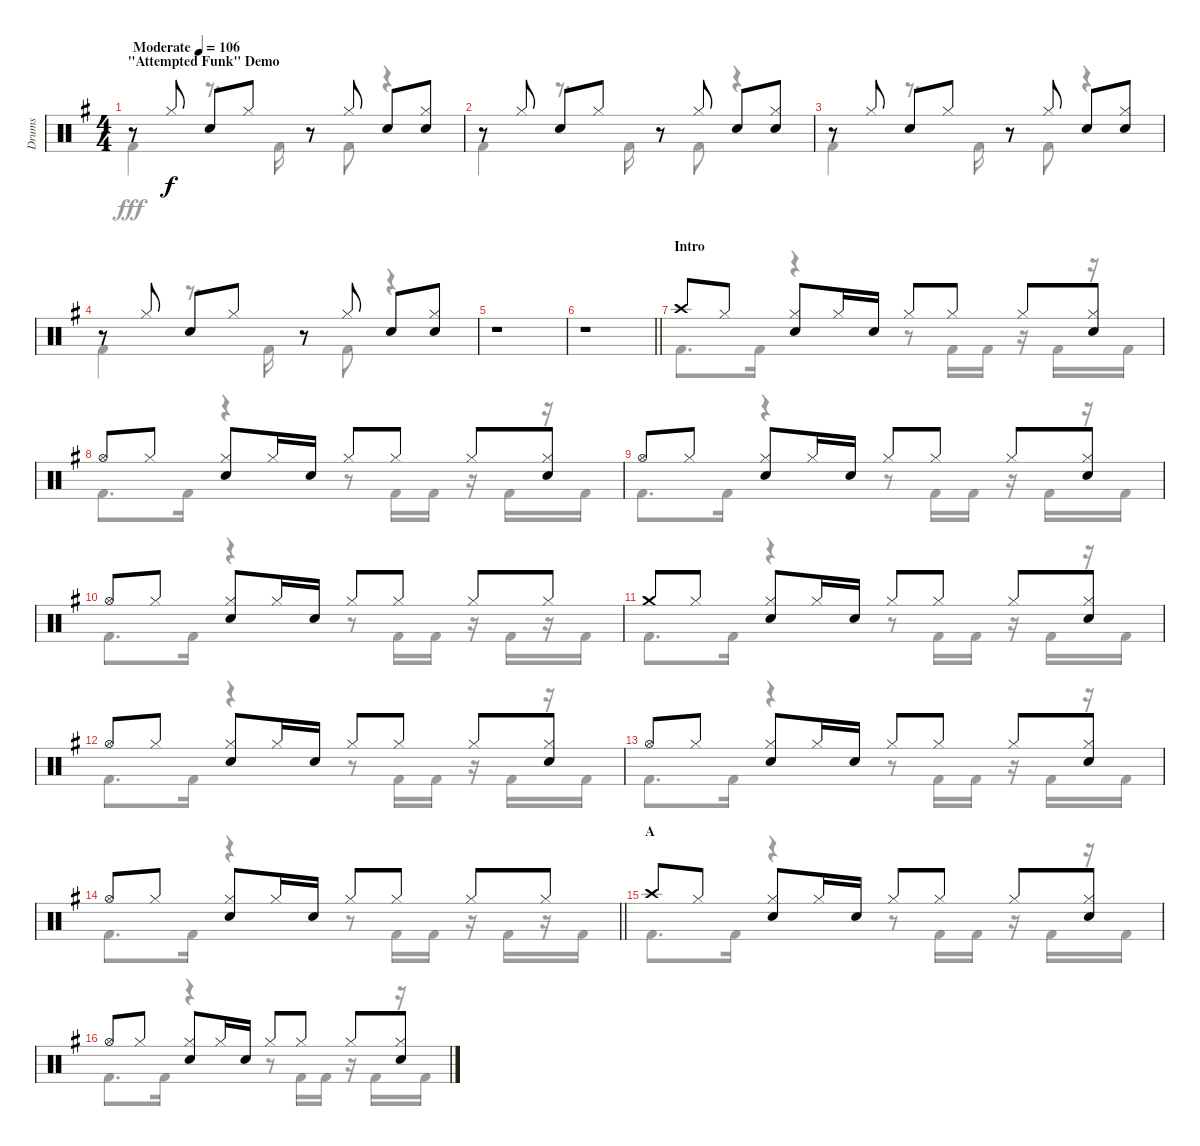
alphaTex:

\track ("Drums" "Drums") {instrument percussion}
\staff {score}
\articulation defaults
\voice
\ts (4 4)
\section ("" "\"Attempted Funk\" Demo")
\tempo (106 "Moderate")
\clef neutral
\ks g
r.8{dy f} "Hi-Hat (closed)".8 "Snare (hit) 2".8 "Hi-Hat (closed)".8 r.8 "Hi-Hat (closed)".8 "Snare (hit) 2".8 ("Hi-Hat (closed)" "Snare (hit) 2").8 |
r.8 "Hi-Hat (closed)".8 "Snare (hit) 2".8 "Hi-Hat (closed)".8 r.8 "Hi-Hat (closed)".8 "Snare (hit) 2".8 ("Hi-Hat (closed)" "Snare (hit) 2").8 |
r.8 "Hi-Hat (closed)".8 "Snare (hit) 2".8 "Hi-Hat (closed)".8 r.8 "Hi-Hat (closed)".8 "Snare (hit) 2".8 ("Hi-Hat (closed)" "Snare (hit) 2").8 |
r.8 "Hi-Hat (closed)".8 "Snare (hit) 2".8 "Hi-Hat (closed)".8 r.8 "Hi-Hat (closed)".8 "Snare (hit) 2".8 ("Hi-Hat (closed)" "Snare (hit) 2").8 |
r.1 |
\barLineRight lightlight
r.1 |
\section ("" "Intro")
"Crash high (hit)".8 "Hi-Hat (closed)".8 ("Hi-Hat (closed)" "Snare (hit) 2").8 "Hi-Hat (closed)".16 "Snare (hit) 2".16 "Hi-Hat (closed)".8 "Hi-Hat (closed)".8 "Hi-Hat (closed)".8 ("Hi-Hat (closed)" "Snare (hit) 2").8 |
"Hi-Hat (open)".8 "Hi-Hat (closed)".8 ("Hi-Hat (closed)" "Snare (hit) 2").8 "Hi-Hat (closed)".16 "Snare (hit) 2".16 "Hi-Hat (closed)".8 "Hi-Hat (closed)".8 "Hi-Hat (closed)".8 ("Hi-Hat (closed)" "Snare (hit) 2").8 |
"Hi-Hat (open)".8 "Hi-Hat (closed)".8 ("Hi-Hat (closed)" "Snare (hit) 2").8 "Hi-Hat (closed)".16 "Snare (hit) 2".16 "Hi-Hat (closed)".8 "Hi-Hat (closed)".8 "Hi-Hat (closed)".8 ("Hi-Hat (closed)" "Snare (hit) 2").8 |
"Hi-Hat (open)".8 "Hi-Hat (closed)".8 ("Hi-Hat (closed)" "Snare (hit) 2").8 "Hi-Hat (closed)".16 "Snare (hit) 2".16 "Hi-Hat (closed)".8 "Hi-Hat (closed)".8 "Hi-Hat (closed)".8 "Hi-Hat (closed)".8 |
"Crash medium (hit)".8 "Hi-Hat (closed)".8 ("Hi-Hat (closed)" "Snare (hit) 2").8 "Hi-Hat (closed)".16 "Snare (hit) 2".16 "Hi-Hat (closed)".8 "Hi-Hat (closed)".8 "Hi-Hat (closed)".8 ("Hi-Hat (closed)" "Snare (hit) 2").8 |
"Hi-Hat (open)".8 "Hi-Hat (closed)".8 ("Hi-Hat (closed)" "Snare (hit) 2").8 "Hi-Hat (closed)".16 "Snare (hit) 2".16 "Hi-Hat (closed)".8 "Hi-Hat (closed)".8 "Hi-Hat (closed)".8 ("Hi-Hat (closed)" "Snare (hit) 2").8 |
"Hi-Hat (open)".8 "Hi-Hat (closed)".8 ("Hi-Hat (closed)" "Snare (hit) 2").8 "Hi-Hat (closed)".16 "Snare (hit) 2".16 "Hi-Hat (closed)".8 "Hi-Hat (closed)".8 "Hi-Hat (closed)".8 ("Hi-Hat (closed)" "Snare (hit) 2").8 |
\barLineRight lightlight "Hi-Hat (open)".8 "Hi-Hat (closed)".8
("Hi-Hat (closed)" "Snare (hit) 2").8 "Hi-Hat (closed)".16 "Snare (hit) 2".16 "Hi-Hat (closed)".8 "Hi-Hat (closed)".8 "Hi-Hat (closed)".8 "Hi-Hat (closed)".8 |
\section ("" "A")
"Crash high (hit)".8 "Hi-Hat (closed)".8 ("Hi-Hat (closed)" "Snare (hit) 2").8 "Hi-Hat (closed)".16 "Snare (hit) 2".16 "Hi-Hat (closed)".8 "Hi-Hat (closed)".8 "Hi-Hat (closed)".8 ("Hi-Hat (closed)" "Snare (hit) 2").8 |
"Hi-Hat (open)".8 "Hi-Hat (closed)".8 ("Hi-Hat (closed)" "Snare (hit) 2").8 "Hi-Hat (closed)".16 "Snare (hit) 2".16 "Hi-Hat (closed)".8 "Hi-Hat (closed)".8 "Hi-Hat (closed)".8 ("Hi-Hat (closed)" "Snare (hit) 2").8
\voice
\clef neutral
\ottava regular
\simile none
\ks g "Kick (hit) 2".4{dy fff}
r.8{d} "Kick (hit) 2".16 r.8 "Kick (hit) 2".8 r.4 |
"Kick (hit) 2".4 r.8{d} "Kick (hit) 2".16 r.8 "Kick (hit) 2".8 r.4 |
"Kick (hit) 2".4 r.8{d} "Kick (hit) 2".16 r.8 "Kick (hit) 2".8 r.4 |
"Kick (hit) 2".4 r.8{d} "Kick (hit) 2".16 r.8 "Kick (hit) 2".8 r.4 |
r.1 |
\barLineRight lightlight
r.1 |
"Kick (hit) 2".8{d} "Kick (hit) 2".16 r.4 r.8 "Kick (hit) 2".16 "Kick (hit) 2".16 r.16 "Kick (hit) 2".16 r.16 "Kick (hit) 2".16 |
"Kick (hit) 2".8{d} "Kick (hit) 2".16 r.4 r.8 "Kick (hit) 2".16 "Kick (hit) 2".16 r.16 "Kick (hit) 2".16 r.16 "Kick (hit) 2".16 |
"Kick (hit) 2".8{d} "Kick (hit) 2".16 r.4 r.8 "Kick (hit) 2".16 "Kick (hit) 2".16 r.16 "Kick (hit) 2".16 r.16 "Kick (hit) 2".16 |
"Kick (hit) 2".8{d} "Kick (hit) 2".16 r.4 r.8 "Kick (hit) 2".16 "Kick (hit) 2".16 r.16 "Kick (hit) 2".16 r.16 "Kick (hit) 2".16 |
"Kick (hit) 2".8{d} "Kick (hit) 2".16 r.4 r.8 "Kick (hit) 2".16 "Kick (hit) 2".16 r.16 "Kick (hit) 2".16 r.16 "Kick (hit) 2".16 |
"Kick (hit) 2".8{d} "Kick (hit) 2".16 r.4 r.8 "Kick (hit) 2".16 "Kick (hit) 2".16 r.16 "Kick (hit) 2".16 r.16 "Kick (hit) 2".16 |
"Kick (hit) 2".8{d} "Kick (hit) 2".16 r.4 r.8 "Kick (hit) 2".16 "Kick (hit) 2".16 r.16 "Kick (hit) 2".16 r.16 "Kick (hit) 2".16 |
\barLineRight lightlight "Kick (hit) 2".8{d} "Kick (hit) 2".16
r.4 r.8 "Kick (hit) 2".16 "Kick (hit) 2".16 r.16 "Kick (hit) 2".16 r.16 "Kick (hit) 2".16 |
"Kick (hit) 2".8{d} "Kick (hit) 2".16 r.4 r.8 "Kick (hit) 2".16 "Kick (hit) 2".16 r.16 "Kick (hit) 2".16 r.16 "Kick (hit) 2".16 |
"Kick (hit) 2".8{d} "Kick (hit) 2".16 r.4 r.8 "Kick (hit) 2".16 "Kick (hit) 2".16 r.16 "Kick (hit) 2".16 r.16 "Kick (hit) 2".16
